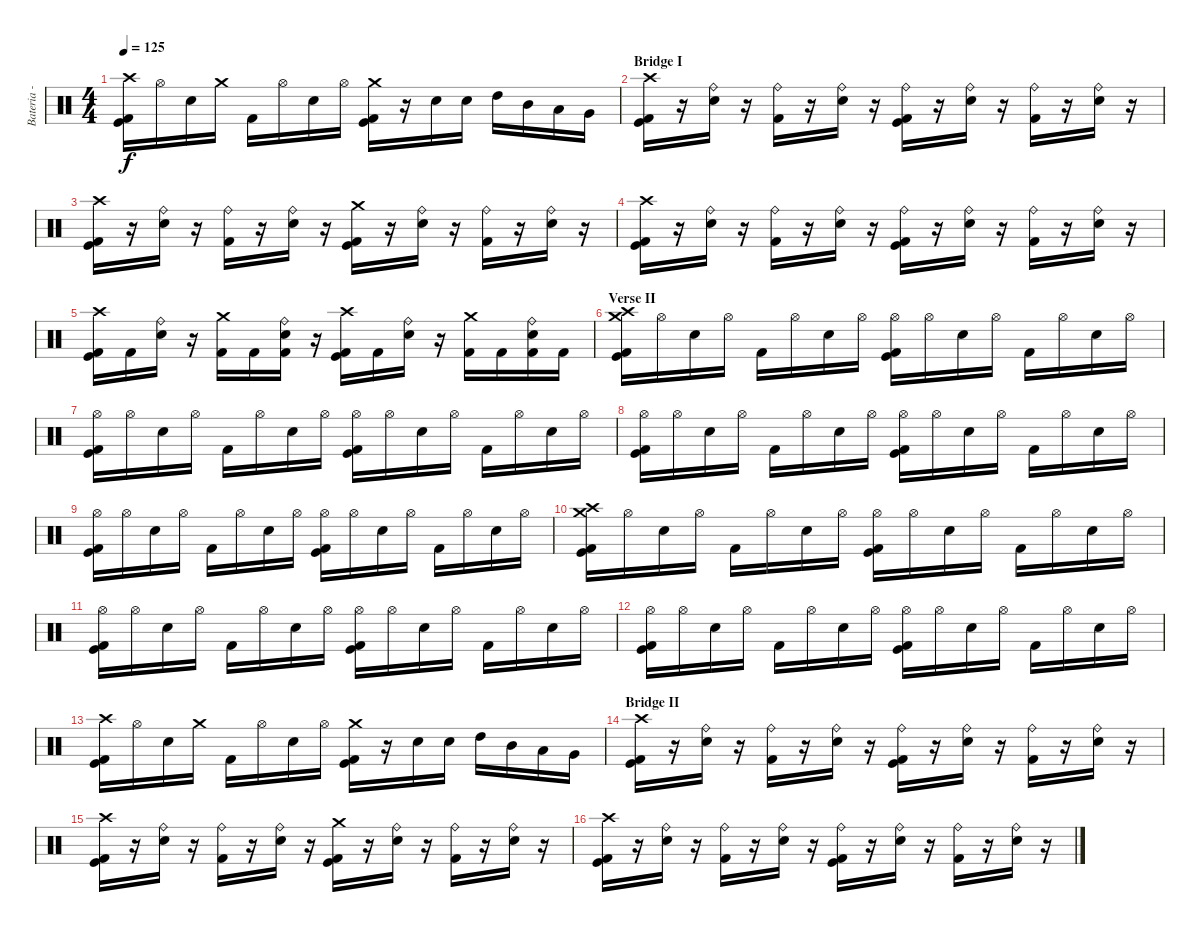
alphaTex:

\track ("Bateria - Drums" "Bateria - ") {instrument percussion}
\staff {score}
\articulation defaults
\ts (4 4)
\tempo 125
\clef neutral
\ks c
("Crash high (hit)" "Kick (hit)" "Kick (hit) 2").16{dy f} "Hi-Hat (open)".16 "Electric Snare (hit)".16 "Crash medium (hit)".16 "Kick (hit) 2".16 "Hi-Hat (open)".16 "Electric Snare (hit)".16 "Hi-Hat (open)".16 ("Crash medium (hit)" "Kick (hit)" "Kick (hit) 2").16 r.16 "Electric Snare (hit)".16 "Snare (hit) 2".16 "High Tom (hit)".16 "Mid Tom (hit)".16 "Low Tom (hit)".16 "Very Low Tom (hit)".16 |
\section ("" "Bridge I")
("Crash high (hit)" "Kick (hit)" "Kick (hit) 2").16 r.16 ("Ride (bell)" "Electric Snare (hit)").16 r.16 ("Ride (bell)" "Kick (hit) 2").16 r.16 ("Ride (bell)" "Electric Snare (hit)").16 r.16 ("Ride (bell)" "Kick (hit)" "Kick (hit) 2").16 r.16 ("Ride (bell)" "Electric Snare (hit)").16 r.16 ("Ride (bell)" "Kick (hit) 2").16 r.16 ("Ride (bell)" "Electric Snare (hit)").16 r.16 |
("Crash high (hit)" "Kick (hit)" "Kick (hit) 2").16 r.16 ("Ride (bell)" "Electric Snare (hit)").16 r.16 ("Ride (bell)" "Kick (hit) 2").16 r.16 ("Ride (bell)" "Electric Snare (hit)").16 r.16 ("Crash medium (hit)" "Kick (hit)" "Kick (hit) 2").16 r.16 ("Ride (bell)" "Electric Snare (hit)").16 r.16 ("Ride (bell)" "Kick (hit) 2").16 r.16 ("Ride (bell)" "Electric Snare (hit)").16 r.16 |
("Crash high (hit)" "Kick (hit)" "Kick (hit) 2").16 r.16 ("Ride (bell)" "Electric Snare (hit)").16 r.16 ("Ride (bell)" "Kick (hit) 2").16 r.16 ("Ride (bell)" "Electric Snare (hit)").16 r.16 ("Ride (bell)" "Kick (hit)" "Kick (hit) 2").16 r.16 ("Ride (bell)" "Electric Snare (hit)").16 r.16 ("Ride (bell)" "Kick (hit) 2").16 r.16 ("Ride (bell)" "Electric Snare (hit)").16 r.16 |
("Crash high (hit)" "Kick (hit)" "Kick (hit) 2").16 "Kick (hit) 2".16 ("Ride (bell)" "Electric Snare (hit)").16 r.16 ("Crash medium (hit)" "Kick (hit) 2").16 "Kick (hit) 2".16 ("Ride (bell)" "Electric Snare (hit)" "Kick (hit) 2").16 r.16 ("Crash high (hit)" "Kick (hit)" "Kick (hit) 2").16 "Kick (hit) 2".16 ("Ride (bell)" "Electric Snare (hit)").16 r.16 ("Crash medium (hit)" "Kick (hit) 2").16 "Kick (hit) 2".16 ("Ride (bell)" "Electric Snare (hit)" "Kick (hit) 2").16 "Kick (hit) 2".16 |
\section ("" "Verse II")
("Crash high (hit)" "Crash medium (hit)" "Kick (hit)" "Kick (hit) 2").16 "Hi-Hat (open)".16 "Electric Snare (hit)".16 "Hi-Hat (open)".16 "Kick (hit) 2".16 "Hi-Hat (open)".16 "Electric Snare (hit)".16 "Hi-Hat (open)".16 ("Hi-Hat (open)" "Kick (hit)" "Kick (hit) 2").16 "Hi-Hat (open)".16 "Electric Snare (hit)".16 "Hi-Hat (open)".16 "Kick (hit) 2".16 "Hi-Hat (open)".16 "Electric Snare (hit)".16 "Hi-Hat (open)".16 |
("Hi-Hat (open)" "Kick (hit)" "Kick (hit) 2").16 "Hi-Hat (open)".16 "Electric Snare (hit)".16 "Hi-Hat (open)".16 "Kick (hit) 2".16 "Hi-Hat (open)".16 "Electric Snare (hit)".16 "Hi-Hat (open)".16 ("Hi-Hat (open)" "Kick (hit)" "Kick (hit) 2").16 "Hi-Hat (open)".16 "Electric Snare (hit)".16 "Hi-Hat (open)".16 "Kick (hit) 2".16 "Hi-Hat (open)".16 "Electric Snare (hit)".16 "Hi-Hat (open)".16 |
("Hi-Hat (open)" "Kick (hit)" "Kick (hit) 2").16 "Hi-Hat (open)".16 "Electric Snare (hit)".16 "Hi-Hat (open)".16 "Kick (hit) 2".16 "Hi-Hat (open)".16 "Electric Snare (hit)".16 "Hi-Hat (open)".16 ("Hi-Hat (open)" "Kick (hit)" "Kick (hit) 2").16 "Hi-Hat (open)".16 "Electric Snare (hit)".16 "Hi-Hat (open)".16 "Kick (hit) 2".16 "Hi-Hat (open)".16 "Electric Snare (hit)".16 "Hi-Hat (open)".16 |
("Hi-Hat (open)" "Kick (hit)" "Kick (hit) 2").16 "Hi-Hat (open)".16 "Electric Snare (hit)".16 "Hi-Hat (open)".16 "Kick (hit) 2".16 "Hi-Hat (open)".16 "Electric Snare (hit)".16 "Hi-Hat (open)".16 ("Hi-Hat (open)" "Kick (hit)" "Kick (hit) 2").16 "Hi-Hat (open)".16 "Electric Snare (hit)".16 "Hi-Hat (open)".16 "Kick (hit) 2".16 "Hi-Hat (open)".16 "Electric Snare (hit)".16 "Hi-Hat (open)".16 |
("Crash high (hit)" "Crash medium (hit)" "Kick (hit)" "Kick (hit) 2").16 "Hi-Hat (open)".16 "Electric Snare (hit)".16 "Hi-Hat (open)".16 "Kick (hit) 2".16 "Hi-Hat (open)".16 "Electric Snare (hit)".16 "Hi-Hat (open)".16 ("Hi-Hat (open)" "Kick (hit)" "Kick (hit) 2").16 "Hi-Hat (open)".16 "Electric Snare (hit)".16 "Hi-Hat (open)".16 "Kick (hit) 2".16 "Hi-Hat (open)".16 "Electric Snare (hit)".16 "Hi-Hat (open)".16 |
("Hi-Hat (open)" "Kick (hit)" "Kick (hit) 2").16 "Hi-Hat (open)".16 "Electric Snare (hit)".16 "Hi-Hat (open)".16 "Kick (hit) 2".16 "Hi-Hat (open)".16 "Electric Snare (hit)".16 "Hi-Hat (open)".16 ("Hi-Hat (open)" "Kick (hit)" "Kick (hit) 2").16 "Hi-Hat (open)".16 "Electric Snare (hit)".16 "Hi-Hat (open)".16 "Kick (hit) 2".16 "Hi-Hat (open)".16 "Electric Snare (hit)".16 "Hi-Hat (open)".16 |
("Hi-Hat (open)" "Kick (hit)" "Kick (hit) 2").16 "Hi-Hat (open)".16 "Electric Snare (hit)".16 "Hi-Hat (open)".16 "Kick (hit) 2".16 "Hi-Hat (open)".16 "Electric Snare (hit)".16 "Hi-Hat (open)".16 ("Hi-Hat (open)" "Kick (hit)" "Kick (hit) 2").16 "Hi-Hat (open)".16 "Electric Snare (hit)".16 "Hi-Hat (open)".16 "Kick (hit) 2".16 "Hi-Hat (open)".16 "Electric Snare (hit)".16 "Hi-Hat (open)".16 |
("Crash high (hit)" "Kick (hit)" "Kick (hit) 2").16 "Hi-Hat (open)".16 "Electric Snare (hit)".16 "Crash medium (hit)".16 "Kick (hit) 2".16 "Hi-Hat (open)".16 "Electric Snare (hit)".16 "Hi-Hat (open)".16 ("Crash medium (hit)" "Kick (hit)" "Kick (hit) 2").16 r.16 "Electric Snare (hit)".16 "Snare (hit) 2".16 "High Tom (hit)".16 "Mid Tom (hit)".16 "Low Tom (hit)".16 "Very Low Tom (hit)".16 |
\section ("" "Bridge II")
("Crash high (hit)" "Kick (hit)" "Kick (hit) 2").16 r.16 ("Ride (bell)" "Electric Snare (hit)").16 r.16 ("Ride (bell)" "Kick (hit) 2").16 r.16 ("Ride (bell)" "Electric Snare (hit)").16 r.16 ("Ride (bell)" "Kick (hit)" "Kick (hit) 2").16 r.16 ("Ride (bell)" "Electric Snare (hit)").16 r.16 ("Ride (bell)" "Kick (hit) 2").16 r.16 ("Ride (bell)" "Electric Snare (hit)").16 r.16 |
("Crash high (hit)" "Kick (hit)" "Kick (hit) 2").16 r.16 ("Ride (bell)" "Electric Snare (hit)").16 r.16 ("Ride (bell)" "Kick (hit) 2").16 r.16 ("Ride (bell)" "Electric Snare (hit)").16 r.16 ("Crash medium (hit)" "Kick (hit)" "Kick (hit) 2").16 r.16 ("Ride (bell)" "Electric Snare (hit)").16 r.16 ("Ride (bell)" "Kick (hit) 2").16 r.16 ("Ride (bell)" "Electric Snare (hit)").16 r.16 |
("Crash high (hit)" "Kick (hit)" "Kick (hit) 2").16 r.16 ("Ride (bell)" "Electric Snare (hit)").16 r.16 ("Ride (bell)" "Kick (hit) 2").16 r.16 ("Ride (bell)" "Electric Snare (hit)").16 r.16 ("Ride (bell)" "Kick (hit)" "Kick (hit) 2").16 r.16 ("Ride (bell)" "Electric Snare (hit)").16 r.16 ("Ride (bell)" "Kick (hit) 2").16 r.16 ("Ride (bell)" "Electric Snare (hit)").16 r.16
